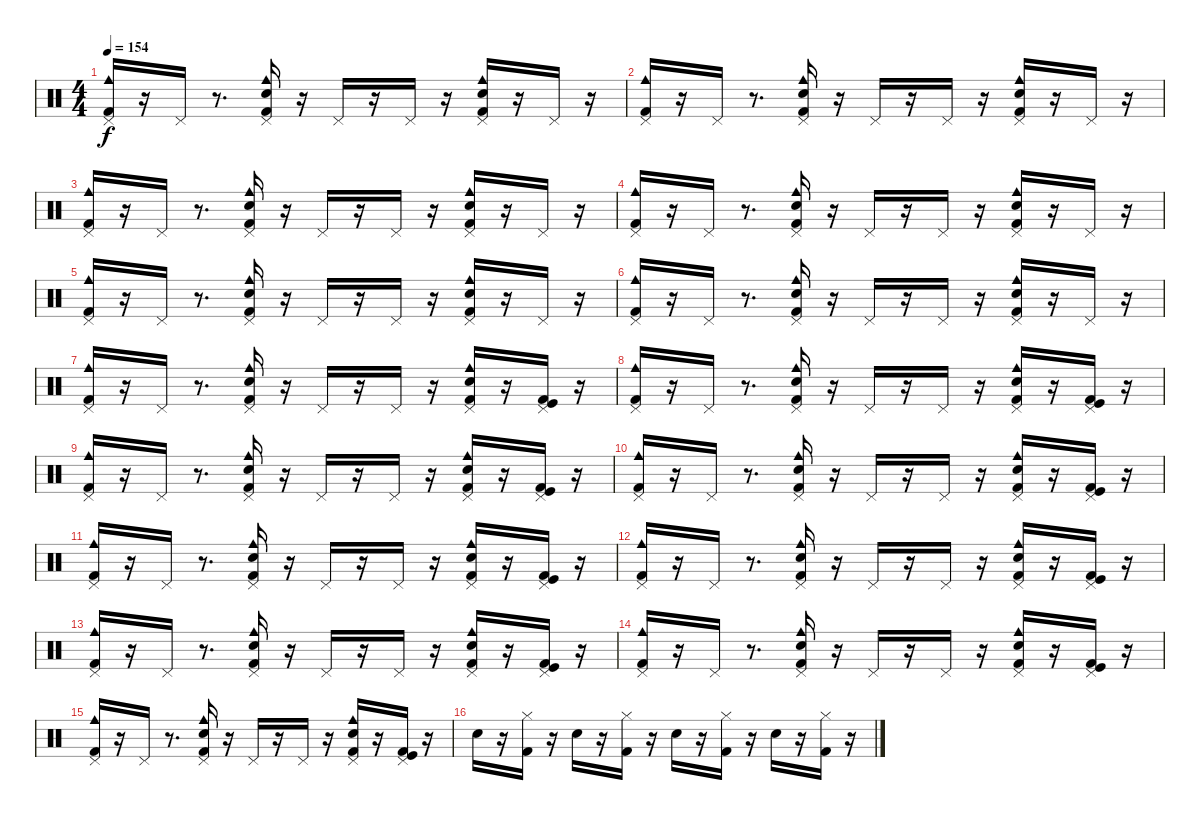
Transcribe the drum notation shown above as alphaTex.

\track "" {instrument percussion}
\staff {score}
\articulation defaults
\ts (4 4)
\tempo 154
\clef neutral
\ks c
("Pedal Hi-Hat (hit)" "Cowbell medium (hit)" "Kick (hit) 2").16{dy f} r.16 "Pedal Hi-Hat (hit)".16 r.8{d} ("Kick (hit) 2" "Electric Snare (hit)" "Pedal Hi-Hat (hit)" "Cowbell medium (hit)").16 r.16 "Pedal Hi-Hat (hit)".16 r.16 "Pedal Hi-Hat (hit)".16 r.16 ("Electric Snare (hit)" "Kick (hit) 2" "Pedal Hi-Hat (hit)" "Cowbell medium (hit)").16 r.16 "Pedal Hi-Hat (hit)".16 r.16 |
("Kick (hit) 2" "Pedal Hi-Hat (hit)" "Cowbell medium (hit)").16 r.16 "Pedal Hi-Hat (hit)".16 r.8{d} ("Pedal Hi-Hat (hit)" "Kick (hit) 2" "Cowbell medium (hit)" "Electric Snare (hit)").16 r.16 "Pedal Hi-Hat (hit)".16 r.16 "Pedal Hi-Hat (hit)".16 r.16 ("Cowbell medium (hit)" "Electric Snare (hit)" "Pedal Hi-Hat (hit)" "Kick (hit) 2").16 r.16 "Pedal Hi-Hat (hit)".16 r.16 |
("Pedal Hi-Hat (hit)" "Cowbell medium (hit)" "Kick (hit) 2").16 r.16 "Pedal Hi-Hat (hit)".16 r.8{d} ("Pedal Hi-Hat (hit)" "Electric Snare (hit)" "Kick (hit) 2" "Cowbell medium (hit)").16 r.16 "Pedal Hi-Hat (hit)".16 r.16 "Pedal Hi-Hat (hit)".16 r.16 ("Cowbell medium (hit)" "Electric Snare (hit)" "Pedal Hi-Hat (hit)" "Kick (hit) 2").16 r.16 "Pedal Hi-Hat (hit)".16 r.16 |
("Cowbell medium (hit)" "Pedal Hi-Hat (hit)" "Kick (hit) 2").16 r.16 "Pedal Hi-Hat (hit)".16 r.8{d} ("Electric Snare (hit)" "Pedal Hi-Hat (hit)" "Cowbell medium (hit)" "Kick (hit) 2").16 r.16 "Pedal Hi-Hat (hit)".16 r.16 "Pedal Hi-Hat (hit)".16 r.16 ("Pedal Hi-Hat (hit)" "Electric Snare (hit)" "Cowbell medium (hit)" "Kick (hit) 2").16 r.16 "Pedal Hi-Hat (hit)".16 r.16 |
("Cowbell medium (hit)" "Kick (hit) 2" "Pedal Hi-Hat (hit)").16 r.16 "Pedal Hi-Hat (hit)".16 r.8{d} ("Kick (hit) 2" "Cowbell medium (hit)" "Pedal Hi-Hat (hit)" "Electric Snare (hit)").16 r.16 "Pedal Hi-Hat (hit)".16 r.16 "Pedal Hi-Hat (hit)".16 r.16 ("Cowbell medium (hit)" "Pedal Hi-Hat (hit)" "Electric Snare (hit)" "Kick (hit) 2").16 r.16 "Pedal Hi-Hat (hit)".16 r.16 |
("Cowbell medium (hit)" "Pedal Hi-Hat (hit)" "Kick (hit) 2").16 r.16 "Pedal Hi-Hat (hit)".16 r.8{d} ("Kick (hit) 2" "Cowbell medium (hit)" "Electric Snare (hit)" "Pedal Hi-Hat (hit)").16 r.16 "Pedal Hi-Hat (hit)".16 r.16 "Pedal Hi-Hat (hit)".16 r.16 ("Kick (hit) 2" "Electric Snare (hit)" "Pedal Hi-Hat (hit)" "Cowbell medium (hit)").16 r.16 "Pedal Hi-Hat (hit)".16 r.16 |
("Kick (hit) 2" "Cowbell medium (hit)" "Pedal Hi-Hat (hit)").16 r.16 "Pedal Hi-Hat (hit)".16 r.8{d} ("Kick (hit) 2" "Electric Snare (hit)" "Pedal Hi-Hat (hit)" "Cowbell medium (hit)").16 r.16 "Pedal Hi-Hat (hit)".16 r.16 "Pedal Hi-Hat (hit)".16 r.16 ("Electric Snare (hit)" "Kick (hit) 2" "Pedal Hi-Hat (hit)" "Cowbell medium (hit)").16 r.16 ("Pedal Hi-Hat (hit)" "Kick (hit)" "Kick (hit) 2").16 r.16 |
("Pedal Hi-Hat (hit)" "Cowbell medium (hit)" "Kick (hit) 2").16 r.16 "Pedal Hi-Hat (hit)".16 r.8{d} ("Pedal Hi-Hat (hit)" "Cowbell medium (hit)" "Kick (hit) 2" "Electric Snare (hit)").16 r.16 "Pedal Hi-Hat (hit)".16 r.16 "Pedal Hi-Hat (hit)".16 r.16 ("Cowbell medium (hit)" "Pedal Hi-Hat (hit)" "Electric Snare (hit)" "Kick (hit) 2").16 r.16 ("Kick (hit) 2" "Kick (hit)" "Pedal Hi-Hat (hit)").16 r.16 |
("Kick (hit) 2" "Pedal Hi-Hat (hit)" "Cowbell medium (hit)").16 r.16 "Pedal Hi-Hat (hit)".16 r.8{d} ("Kick (hit) 2" "Electric Snare (hit)" "Pedal Hi-Hat (hit)" "Cowbell medium (hit)").16 r.16 "Pedal Hi-Hat (hit)".16 r.16 "Pedal Hi-Hat (hit)".16 r.16 ("Kick (hit) 2" "Electric Snare (hit)" "Pedal Hi-Hat (hit)" "Cowbell medium (hit)").16 r.16 ("Pedal Hi-Hat (hit)" "Kick (hit)" "Kick (hit) 2").16 r.16 |
("Kick (hit) 2" "Cowbell medium (hit)" "Pedal Hi-Hat (hit)").16 r.16 "Pedal Hi-Hat (hit)".16 r.8{d} ("Pedal Hi-Hat (hit)" "Cowbell medium (hit)" "Kick (hit) 2" "Electric Snare (hit)").16 r.16 "Pedal Hi-Hat (hit)".16 r.16 "Pedal Hi-Hat (hit)".16 r.16 ("Pedal Hi-Hat (hit)" "Kick (hit) 2" "Electric Snare (hit)" "Cowbell medium (hit)").16 r.16 ("Kick (hit)" "Kick (hit) 2" "Pedal Hi-Hat (hit)").16 r.16 |
("Pedal Hi-Hat (hit)" "Cowbell medium (hit)" "Kick (hit) 2").16 r.16 "Pedal Hi-Hat (hit)".16 r.8{d} ("Pedal Hi-Hat (hit)" "Electric Snare (hit)" "Kick (hit) 2" "Cowbell medium (hit)").16 r.16 "Pedal Hi-Hat (hit)".16 r.16 "Pedal Hi-Hat (hit)".16 r.16 ("Electric Snare (hit)" "Cowbell medium (hit)" "Pedal Hi-Hat (hit)" "Kick (hit) 2").16 r.16 ("Kick (hit) 2" "Pedal Hi-Hat (hit)" "Kick (hit)").16 r.16 |
("Kick (hit) 2" "Cowbell medium (hit)" "Pedal Hi-Hat (hit)").16 r.16 "Pedal Hi-Hat (hit)".16 r.8{d} ("Kick (hit) 2" "Electric Snare (hit)" "Pedal Hi-Hat (hit)" "Cowbell medium (hit)").16 r.16 "Pedal Hi-Hat (hit)".16 r.16 "Pedal Hi-Hat (hit)".16 r.16 ("Pedal Hi-Hat (hit)" "Kick (hit) 2" "Electric Snare (hit)" "Cowbell medium (hit)").16 r.16 ("Kick (hit) 2" "Kick (hit)" "Pedal Hi-Hat (hit)").16 r.16 |
("Cowbell medium (hit)" "Pedal Hi-Hat (hit)" "Kick (hit) 2").16 r.16 "Pedal Hi-Hat (hit)".16 r.8{d} ("Pedal Hi-Hat (hit)" "Cowbell medium (hit)" "Kick (hit) 2" "Electric Snare (hit)").16 r.16 "Pedal Hi-Hat (hit)".16 r.16 "Pedal Hi-Hat (hit)".16 r.16 ("Electric Snare (hit)" "Cowbell medium (hit)" "Pedal Hi-Hat (hit)" "Kick (hit) 2").16 r.16 ("Pedal Hi-Hat (hit)" "Kick (hit)" "Kick (hit) 2").16 r.16 |
("Pedal Hi-Hat (hit)" "Cowbell medium (hit)" "Kick (hit) 2").16 r.16 "Pedal Hi-Hat (hit)".16 r.8{d} ("Kick (hit) 2" "Electric Snare (hit)" "Pedal Hi-Hat (hit)" "Cowbell medium (hit)").16 r.16 "Pedal Hi-Hat (hit)".16 r.16 "Pedal Hi-Hat (hit)".16 r.16 ("Electric Snare (hit)" "Kick (hit) 2" "Pedal Hi-Hat (hit)" "Cowbell medium (hit)").16 r.16 ("Kick (hit) 2" "Kick (hit)" "Pedal Hi-Hat (hit)").16 r.16 |
("Kick (hit) 2" "Cowbell medium (hit)" "Pedal Hi-Hat (hit)").16 r.16 "Pedal Hi-Hat (hit)".16 r.8{d} ("Cowbell medium (hit)" "Pedal Hi-Hat (hit)" "Kick (hit) 2" "Electric Snare (hit)").16 r.16 "Pedal Hi-Hat (hit)".16 r.16 "Pedal Hi-Hat (hit)".16 r.16 ("Pedal Hi-Hat (hit)" "Kick (hit) 2" "Electric Snare (hit)" "Cowbell medium (hit)").16 r.16 ("Pedal Hi-Hat (hit)" "Kick (hit)" "Kick (hit) 2").16 r.16 |
"Snare (hit) 2".16 r.16 ("Hi-Hat (closed)" "Kick (hit) 2").16 r.16 "Snare (hit) 2".16 r.16 ("Hi-Hat (closed)" "Kick (hit) 2").16 r.16 "Snare (hit) 2".16 r.16 ("Kick (hit) 2" "Hi-Hat (closed)").16 r.16 "Snare (hit) 2".16 r.16 ("Hi-Hat (closed)" "Kick (hit) 2").16 r.16
